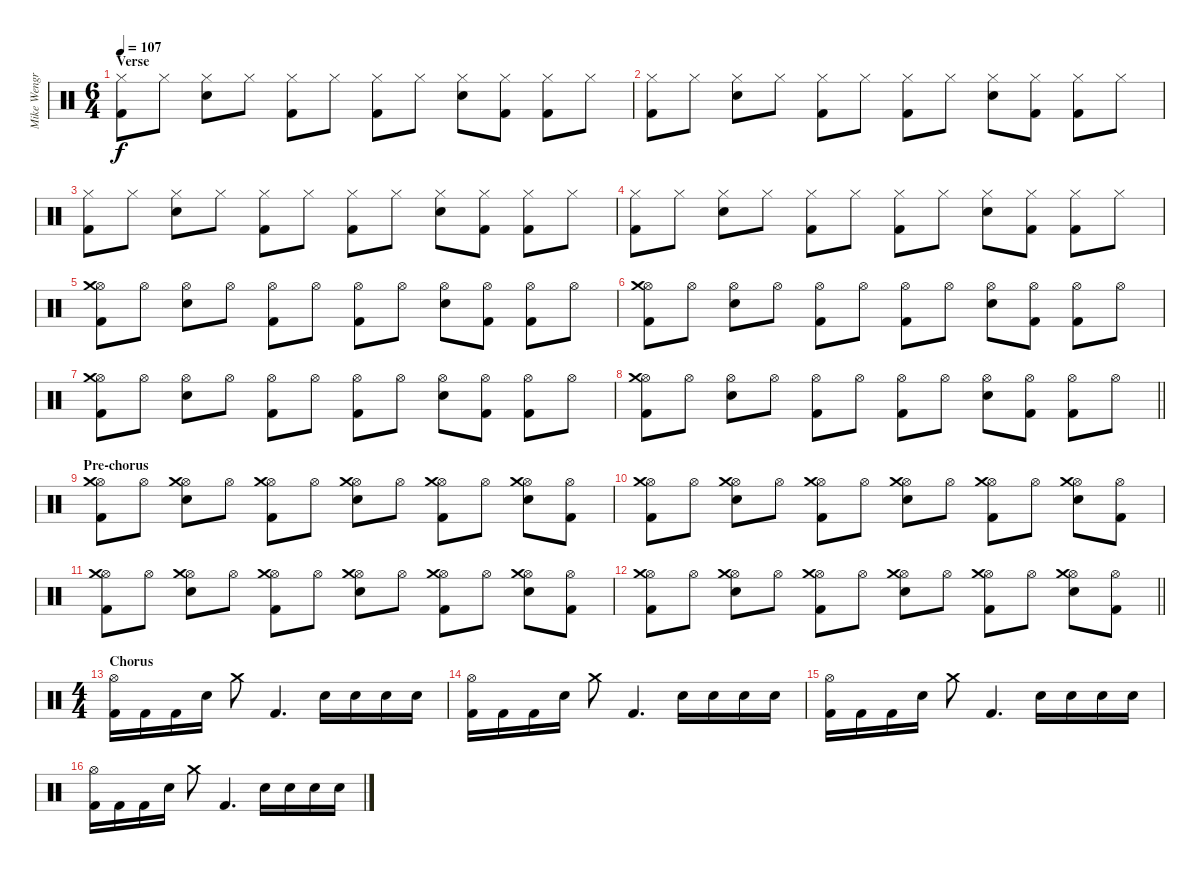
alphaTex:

\track ("Mike Wengren" "Mike Wengr") {instrument percussion}
\staff {score}
\articulation defaults
\ts (6 4)
\section ("" "Verse")
\tempo 107
\clef neutral
\ks c
("Kick (hit) 2" "Hi-Hat (closed)").8{dy f} "Hi-Hat (closed)".8 ("Electric Snare (hit)" "Hi-Hat (closed)").8 "Hi-Hat (closed)".8 ("Kick (hit) 2" "Hi-Hat (closed)").8 "Hi-Hat (closed)".8 ("Kick (hit) 2" "Hi-Hat (closed)").8 "Hi-Hat (closed)".8 ("Electric Snare (hit)" "Hi-Hat (closed)").8 ("Kick (hit) 2" "Hi-Hat (closed)").8 ("Kick (hit) 2" "Hi-Hat (closed)").8 "Hi-Hat (closed)".8 |
("Kick (hit) 2" "Hi-Hat (closed)").8 "Hi-Hat (closed)".8 ("Electric Snare (hit)" "Hi-Hat (closed)").8 "Hi-Hat (closed)".8 ("Kick (hit) 2" "Hi-Hat (closed)").8 "Hi-Hat (closed)".8 ("Kick (hit) 2" "Hi-Hat (closed)").8 "Hi-Hat (closed)".8 ("Electric Snare (hit)" "Hi-Hat (closed)").8 ("Kick (hit) 2" "Hi-Hat (closed)").8 ("Kick (hit) 2" "Hi-Hat (closed)").8 "Hi-Hat (closed)".8 |
("Kick (hit) 2" "Hi-Hat (closed)").8 "Hi-Hat (closed)".8 ("Electric Snare (hit)" "Hi-Hat (closed)").8 "Hi-Hat (closed)".8 ("Kick (hit) 2" "Hi-Hat (closed)").8 "Hi-Hat (closed)".8 ("Kick (hit) 2" "Hi-Hat (closed)").8 "Hi-Hat (closed)".8 ("Electric Snare (hit)" "Hi-Hat (closed)").8 ("Kick (hit) 2" "Hi-Hat (closed)").8 ("Kick (hit) 2" "Hi-Hat (closed)").8 "Hi-Hat (closed)".8 |
("Kick (hit) 2" "Hi-Hat (closed)").8 "Hi-Hat (closed)".8 ("Electric Snare (hit)" "Hi-Hat (closed)").8 "Hi-Hat (closed)".8 ("Kick (hit) 2" "Hi-Hat (closed)").8 "Hi-Hat (closed)".8 ("Kick (hit) 2" "Hi-Hat (closed)").8 "Hi-Hat (closed)".8 ("Electric Snare (hit)" "Hi-Hat (closed)").8 ("Kick (hit) 2" "Hi-Hat (closed)").8 ("Kick (hit) 2" "Hi-Hat (closed)").8 "Hi-Hat (closed)".8 |
("Kick (hit) 2" "Hi-Hat (open)" "Crash medium (hit)").8 "Hi-Hat (open)".8 ("Electric Snare (hit)" "Hi-Hat (open)").8 "Hi-Hat (open)".8 ("Kick (hit) 2" "Hi-Hat (open)").8 "Hi-Hat (open)".8 ("Kick (hit) 2" "Hi-Hat (open)").8 "Hi-Hat (open)".8 ("Electric Snare (hit)" "Hi-Hat (open)").8 ("Kick (hit) 2" "Hi-Hat (open)").8 ("Kick (hit) 2" "Hi-Hat (open)").8 "Hi-Hat (open)".8 |
("Kick (hit) 2" "Hi-Hat (open)" "Crash medium (hit)").8 "Hi-Hat (open)".8 ("Electric Snare (hit)" "Hi-Hat (open)").8 "Hi-Hat (open)".8 ("Kick (hit) 2" "Hi-Hat (open)").8 "Hi-Hat (open)".8 ("Kick (hit) 2" "Hi-Hat (open)").8 "Hi-Hat (open)".8 ("Electric Snare (hit)" "Hi-Hat (open)").8 ("Kick (hit) 2" "Hi-Hat (open)").8 ("Kick (hit) 2" "Hi-Hat (open)").8 "Hi-Hat (open)".8 |
("Kick (hit) 2" "Hi-Hat (open)" "Crash medium (hit)").8 "Hi-Hat (open)".8 ("Electric Snare (hit)" "Hi-Hat (open)").8 "Hi-Hat (open)".8 ("Kick (hit) 2" "Hi-Hat (open)").8 "Hi-Hat (open)".8 ("Kick (hit) 2" "Hi-Hat (open)").8 "Hi-Hat (open)".8 ("Electric Snare (hit)" "Hi-Hat (open)").8 ("Kick (hit) 2" "Hi-Hat (open)").8 ("Kick (hit) 2" "Hi-Hat (open)").8 "Hi-Hat (open)".8 |
\barLineRight lightlight
("Kick (hit) 2" "Hi-Hat (open)" "Crash medium (hit)").8 "Hi-Hat (open)".8 ("Electric Snare (hit)" "Hi-Hat (open)").8 "Hi-Hat (open)".8 ("Kick (hit) 2" "Hi-Hat (open)").8 "Hi-Hat (open)".8 ("Kick (hit) 2" "Hi-Hat (open)").8 "Hi-Hat (open)".8 ("Electric Snare (hit)" "Hi-Hat (open)").8 ("Kick (hit) 2" "Hi-Hat (open)").8 ("Kick (hit) 2" "Hi-Hat (open)").8 "Hi-Hat (open)".8 |
\section ("" "Pre-chorus")
("Kick (hit) 2" "Hi-Hat (open)" "Crash medium (hit)").8 "Hi-Hat (open)".8 ("Electric Snare (hit)" "Hi-Hat (open)" "Crash medium (hit)").8 "Hi-Hat (open)".8 ("Kick (hit) 2" "Hi-Hat (open)" "Crash medium (hit)").8 "Hi-Hat (open)".8 ("Electric Snare (hit)" "Hi-Hat (open)" "Crash medium (hit)").8 "Hi-Hat (open)".8 ("Kick (hit) 2" "Hi-Hat (open)" "Crash medium (hit)").8 "Hi-Hat (open)".8 ("Electric Snare (hit)" "Hi-Hat (open)" "Crash medium (hit)").8 ("Kick (hit) 2" "Hi-Hat (open)").8 |
("Kick (hit) 2" "Hi-Hat (open)" "Crash medium (hit)").8 "Hi-Hat (open)".8 ("Electric Snare (hit)" "Hi-Hat (open)" "Crash medium (hit)").8 "Hi-Hat (open)".8 ("Kick (hit) 2" "Hi-Hat (open)" "Crash medium (hit)").8 "Hi-Hat (open)".8 ("Electric Snare (hit)" "Hi-Hat (open)" "Crash medium (hit)").8 "Hi-Hat (open)".8 ("Kick (hit) 2" "Hi-Hat (open)" "Crash medium (hit)").8 "Hi-Hat (open)".8 ("Electric Snare (hit)" "Hi-Hat (open)" "Crash medium (hit)").8 ("Kick (hit) 2" "Hi-Hat (open)").8 |
("Kick (hit) 2" "Hi-Hat (open)" "Crash medium (hit)").8 "Hi-Hat (open)".8 ("Electric Snare (hit)" "Hi-Hat (open)" "Crash medium (hit)").8 "Hi-Hat (open)".8 ("Kick (hit) 2" "Hi-Hat (open)" "Crash medium (hit)").8 "Hi-Hat (open)".8 ("Electric Snare (hit)" "Hi-Hat (open)" "Crash medium (hit)").8 "Hi-Hat (open)".8 ("Kick (hit) 2" "Hi-Hat (open)" "Crash medium (hit)").8 "Hi-Hat (open)".8 ("Electric Snare (hit)" "Hi-Hat (open)" "Crash medium (hit)").8 ("Kick (hit) 2" "Hi-Hat (open)").8 |
\barLineRight lightlight
("Kick (hit) 2" "Hi-Hat (open)" "Crash medium (hit)").8 "Hi-Hat (open)".8 ("Electric Snare (hit)" "Hi-Hat (open)" "Crash medium (hit)").8 "Hi-Hat (open)".8 ("Kick (hit) 2" "Hi-Hat (open)" "Crash medium (hit)").8 "Hi-Hat (open)".8 ("Electric Snare (hit)" "Hi-Hat (open)" "Crash medium (hit)").8 "Hi-Hat (open)".8 ("Kick (hit) 2" "Hi-Hat (open)" "Crash medium (hit)").8 "Hi-Hat (open)".8 ("Electric Snare (hit)" "Hi-Hat (open)" "Crash medium (hit)").8 ("Kick (hit) 2" "Hi-Hat (open)").8 |
\ts (4 4)
\section ("" "Chorus")
("Kick (hit) 2" "Hi-Hat (open)").16 "Kick (hit) 2".16 "Kick (hit) 2".16 "Electric Snare (hit)".16 "Crash medium (hit)".8 "Kick (hit) 2".4{d} "Electric Snare (hit)".16 "Electric Snare (hit)".16 "Electric Snare (hit)".16 "Electric Snare (hit)".16 |
("Kick (hit) 2" "Hi-Hat (open)").16 "Kick (hit) 2".16 "Kick (hit) 2".16 "Electric Snare (hit)".16 "Crash medium (hit)".8 "Kick (hit) 2".4{d} "Electric Snare (hit)".16 "Electric Snare (hit)".16 "Electric Snare (hit)".16 "Electric Snare (hit)".16 |
("Kick (hit) 2" "Hi-Hat (open)").16 "Kick (hit) 2".16 "Kick (hit) 2".16 "Electric Snare (hit)".16 "Crash medium (hit)".8 "Kick (hit) 2".4{d} "Electric Snare (hit)".16 "Electric Snare (hit)".16 "Electric Snare (hit)".16 "Electric Snare (hit)".16 |
("Kick (hit) 2" "Hi-Hat (open)").16 "Kick (hit) 2".16 "Kick (hit) 2".16 "Electric Snare (hit)".16 "Crash medium (hit)".8 "Kick (hit) 2".4{d} "Electric Snare (hit)".16 "Electric Snare (hit)".16 "Electric Snare (hit)".16 "Electric Snare (hit)".16
